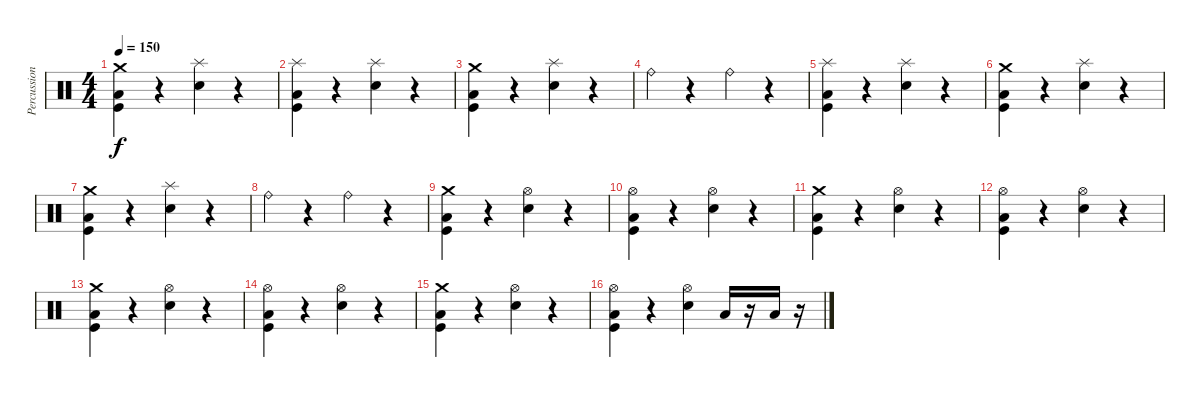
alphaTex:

\track ("Percussions" "Percussion") {instrument percussion}
\staff {score}
\articulation defaults
\ts (4 4)
\tempo 150
\clef neutral
\ks c
("Crash medium (hit)" "Low Floor Tom (hit)" "Kick (hit)").4{dy f} r.4 ("Splash (hit)" "Snare (hit) 2").4 r.4 |
("Splash (hit)" "Low Floor Tom (hit)" "Kick (hit)").4 r.4 ("Splash (hit)" "Snare (hit) 2").4 r.4 |
("Crash medium (hit)" "Low Floor Tom (hit)" "Kick (hit)").4 r.4 ("Splash (hit)" "Snare (hit) 2").4 r.4 |
"Ride (bell)".4 r.4 "Ride (bell)".4 r.4 |
("Splash (hit)" "Low Floor Tom (hit)" "Kick (hit)").4 r.4 ("Splash (hit)" "Snare (hit) 2").4 r.4 |
("Crash medium (hit)" "Low Floor Tom (hit)" "Kick (hit)").4 r.4 ("Splash (hit)" "Snare (hit) 2").4 r.4 |
("Crash medium (hit)" "Low Floor Tom (hit)" "Kick (hit)").4 r.4 ("Splash (hit)" "Snare (hit) 2").4 r.4 |
"Ride (bell)".4 r.4 "Ride (bell)".4 r.4 |
("Crash medium (hit)" "Low Floor Tom (hit)" "Kick (hit)").4 r.4 ("Hi-Hat (open)" "Snare (hit) 2").4 r.4 |
("Hi-Hat (open)" "Low Floor Tom (hit)" "Kick (hit)").4 r.4 ("Hi-Hat (open)" "Snare (hit) 2").4 r.4 |
("Crash medium (hit)" "Low Floor Tom (hit)"{tr (45 16)} "Kick (hit)").4 r.4 ("Hi-Hat (open)" "Snare (hit) 2").4 r.4 |
("Hi-Hat (open)" "Low Floor Tom (hit)" "Kick (hit)").4 r.4 ("Hi-Hat (open)" "Snare (hit) 2").4 r.4 |
("Crash medium (hit)" "Low Floor Tom (hit)" "Kick (hit)").4 r.4 ("Hi-Hat (open)" "Snare (hit) 2").4 r.4 |
("Hi-Hat (open)" "Low Floor Tom (hit)" "Kick (hit)").4 r.4 ("Hi-Hat (open)" "Snare (hit) 2").4 r.4 |
("Crash medium (hit)" "Low Floor Tom (hit)" "Kick (hit)").4 r.4 ("Hi-Hat (open)" "Snare (hit) 2").4 r.4 |
("Hi-Hat (open)" "Low Floor Tom (hit)" "Kick (hit)").4 r.4 ("Hi-Hat (open)" "Snare (hit) 2").4 "Low Floor Tom (hit)".16 r.16 "Low Floor Tom (hit)".16 r.16
